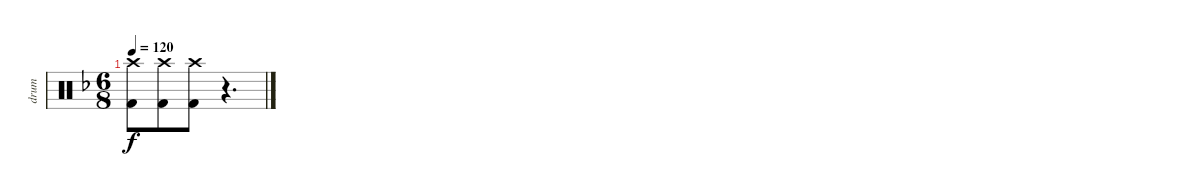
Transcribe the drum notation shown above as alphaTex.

\track ("drum" "drum") {instrument percussion}
\staff {score}
\articulation defaults
\ts (6 8)
\tempo 120
\clef neutral
\ks f
("Crash high (hit)" "Kick (hit) 2").8{dy f} ("Crash high (hit)" "Kick (hit) 2").8 ("Crash high (hit)" "Kick (hit) 2").8 r.4{d}
